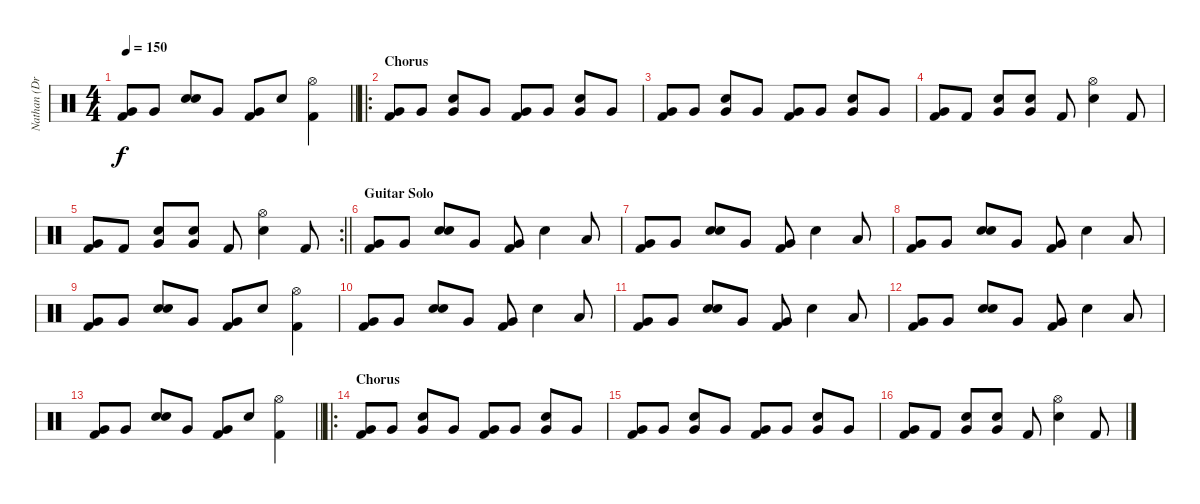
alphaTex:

\track ("Nathan (Drums)" "Nathan (Dr") {instrument percussion}
\staff {score}
\articulation defaults
\ts (4 4)
\tempo 150
\clef neutral
\barLineRight lightlight
\ks c
("Very Low Tom (hit)" "Kick (hit) 2").8{dy f} "Very Low Tom (hit)".8 ("Electric Snare (hit)" "Electric Snare (hit)").8 "Very Low Tom (hit)".8 ("Very Low Tom (hit)" "Kick (hit) 2").8 "Electric Snare (hit)".8 ("Hi-Hat (open)" "Kick (hit) 2").4 |
\ro
\section ("" "Chorus")
("Very Low Tom (hit)" "Kick (hit) 2").8 "Very Low Tom (hit)".8 ("Very Low Tom (hit)" "Electric Snare (hit)").8 "Very Low Tom (hit)".8 ("Very Low Tom (hit)" "Kick (hit) 2").8 "Very Low Tom (hit)".8 ("Very Low Tom (hit)" "Electric Snare (hit)").8 "Very Low Tom (hit)".8 |
("Very Low Tom (hit)" "Kick (hit) 2").8 "Very Low Tom (hit)".8 ("Very Low Tom (hit)" "Electric Snare (hit)").8 "Very Low Tom (hit)".8 ("Very Low Tom (hit)" "Kick (hit) 2").8 "Very Low Tom (hit)".8 ("Very Low Tom (hit)" "Electric Snare (hit)").8 "Very Low Tom (hit)".8 |
("Very Low Tom (hit)" "Kick (hit) 2").8 "Kick (hit) 2".8 ("Very Low Tom (hit)" "Electric Snare (hit)").8 ("Very Low Tom (hit)" "Electric Snare (hit)").8 "Kick (hit) 2".8 ("Hi-Hat (open)" "Electric Snare (hit)").4 "Kick (hit) 2".8 |
\rc 2
\barLineRight lightlight
("Very Low Tom (hit)" "Kick (hit) 2").8 "Kick (hit) 2".8 ("Very Low Tom (hit)" "Electric Snare (hit)").8 ("Very Low Tom (hit)" "Electric Snare (hit)").8 "Kick (hit) 2".8 ("Hi-Hat (open)" "Electric Snare (hit)").4 "Kick (hit) 2".8 |
\section ("" "Guitar Solo")
("Very Low Tom (hit)" "Kick (hit) 2").8 "Very Low Tom (hit)".8 ("Electric Snare (hit)" "Electric Snare (hit)").8 "Very Low Tom (hit)".8 ("Very Low Tom (hit)" "Kick (hit) 2").8 "Electric Snare (hit)".4 "Low Tom (hit)".8 |
("Very Low Tom (hit)" "Kick (hit) 2").8 "Very Low Tom (hit)".8 ("Electric Snare (hit)" "Electric Snare (hit)").8 "Very Low Tom (hit)".8 ("Very Low Tom (hit)" "Kick (hit) 2").8 "Electric Snare (hit)".4 "Low Tom (hit)".8 |
("Very Low Tom (hit)" "Kick (hit) 2").8 "Very Low Tom (hit)".8 ("Electric Snare (hit)" "Electric Snare (hit)").8 "Very Low Tom (hit)".8 ("Very Low Tom (hit)" "Kick (hit) 2").8 "Electric Snare (hit)".4 "Low Tom (hit)".8 |
("Very Low Tom (hit)" "Kick (hit) 2").8 "Very Low Tom (hit)".8 ("Electric Snare (hit)" "Electric Snare (hit)").8 "Very Low Tom (hit)".8 ("Very Low Tom (hit)" "Kick (hit) 2").8 "Electric Snare (hit)".8 ("Hi-Hat (open)" "Kick (hit) 2").4 |
("Very Low Tom (hit)" "Kick (hit) 2").8 "Very Low Tom (hit)".8 ("Electric Snare (hit)" "Electric Snare (hit)").8 "Very Low Tom (hit)".8 ("Very Low Tom (hit)" "Kick (hit) 2").8 "Electric Snare (hit)".4 "Low Tom (hit)".8 |
("Very Low Tom (hit)" "Kick (hit) 2").8 "Very Low Tom (hit)".8 ("Electric Snare (hit)" "Electric Snare (hit)").8 "Very Low Tom (hit)".8 ("Very Low Tom (hit)" "Kick (hit) 2").8 "Electric Snare (hit)".4 "Low Tom (hit)".8 |
("Very Low Tom (hit)" "Kick (hit) 2").8 "Very Low Tom (hit)".8 ("Electric Snare (hit)" "Electric Snare (hit)").8 "Very Low Tom (hit)".8 ("Very Low Tom (hit)" "Kick (hit) 2").8 "Electric Snare (hit)".4 "Low Tom (hit)".8 |
\barLineRight lightlight
("Very Low Tom (hit)" "Kick (hit) 2").8 "Very Low Tom (hit)".8 ("Electric Snare (hit)" "Electric Snare (hit)").8 "Very Low Tom (hit)".8 ("Very Low Tom (hit)" "Kick (hit) 2").8 "Electric Snare (hit)".8 ("Hi-Hat (open)" "Kick (hit) 2").4 |
\ro
\section ("" "Chorus")
("Very Low Tom (hit)" "Kick (hit) 2").8 "Very Low Tom (hit)".8 ("Very Low Tom (hit)" "Electric Snare (hit)").8 "Very Low Tom (hit)".8 ("Very Low Tom (hit)" "Kick (hit) 2").8 "Very Low Tom (hit)".8 ("Very Low Tom (hit)" "Electric Snare (hit)").8 "Very Low Tom (hit)".8 |
("Very Low Tom (hit)" "Kick (hit) 2").8 "Very Low Tom (hit)".8 ("Very Low Tom (hit)" "Electric Snare (hit)").8 "Very Low Tom (hit)".8 ("Very Low Tom (hit)" "Kick (hit) 2").8 "Very Low Tom (hit)".8 ("Very Low Tom (hit)" "Electric Snare (hit)").8 "Very Low Tom (hit)".8 |
("Very Low Tom (hit)" "Kick (hit) 2").8 "Kick (hit) 2".8 ("Very Low Tom (hit)" "Electric Snare (hit)").8 ("Very Low Tom (hit)" "Electric Snare (hit)").8 "Kick (hit) 2".8 ("Hi-Hat (open)" "Electric Snare (hit)").4 "Kick (hit) 2".8
